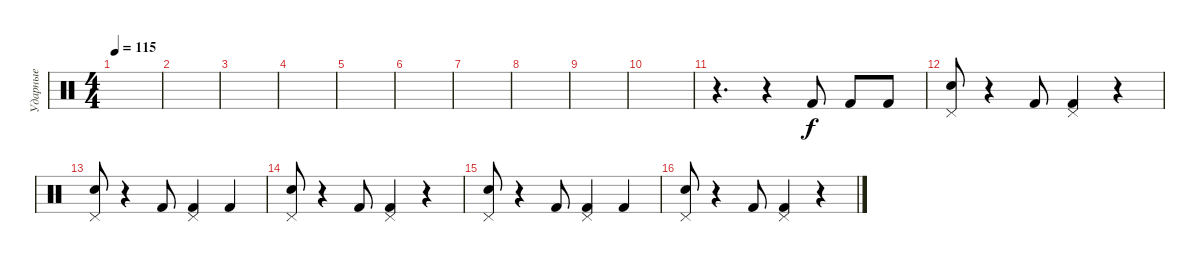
\track ("Ударные" "Ударные") {instrument percussion}
\staff {score}
\articulation defaults
\ts (4 4)
\tempo 115
\clef neutral
\ks c
|
|
|
|
|
|
|
|
|
|
r.4{d} r.4 "Kick (hit) 2".8 "Kick (hit) 2".8 "Kick (hit) 2".8 |
("Snare (hit) 2" "Pedal Hi-Hat (hit)").8 r.4 "Kick (hit) 2".8 ("Kick (hit) 2" "Pedal Hi-Hat (hit)").4 r.4 |
("Snare (hit) 2" "Pedal Hi-Hat (hit)").8 r.4 "Kick (hit) 2".8 ("Kick (hit) 2" "Pedal Hi-Hat (hit)").4 "Kick (hit) 2".4 |
("Snare (hit) 2" "Pedal Hi-Hat (hit)").8 r.4 "Kick (hit) 2".8 ("Kick (hit) 2" "Pedal Hi-Hat (hit)").4 r.4 |
("Snare (hit) 2" "Pedal Hi-Hat (hit)").8 r.4 "Kick (hit) 2".8 ("Kick (hit) 2" "Pedal Hi-Hat (hit)").4 "Kick (hit) 2".4 |
("Snare (hit) 2" "Pedal Hi-Hat (hit)").8 r.4 "Kick (hit) 2".8 ("Kick (hit) 2" "Pedal Hi-Hat (hit)").4 r.4
